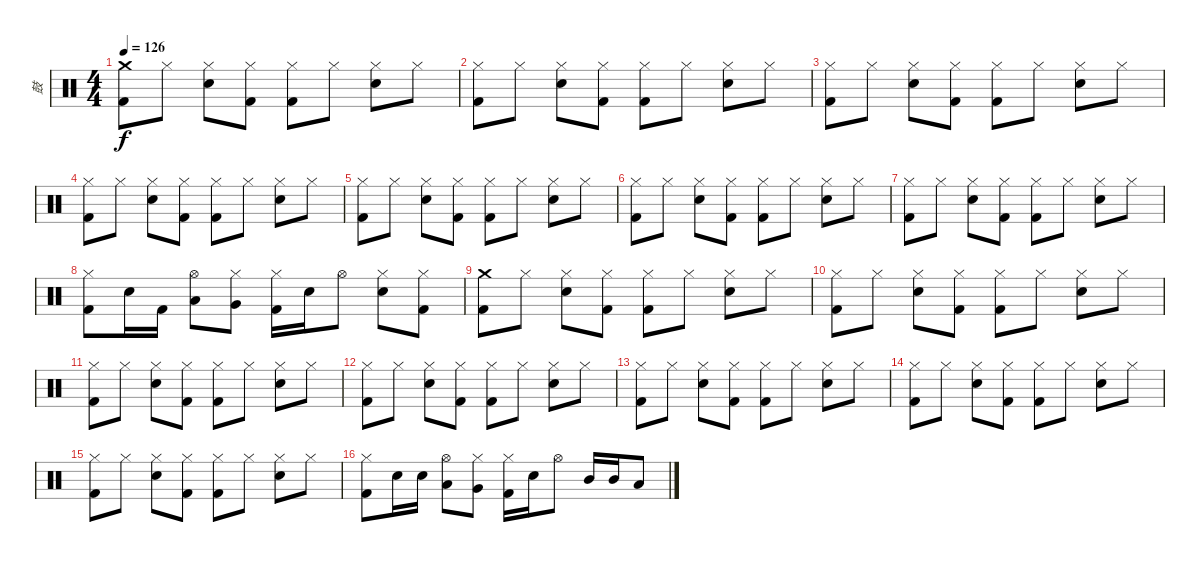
\track ("鼓" "鼓") {instrument percussion}
\staff {score}
\articulation defaults
\ts (4 4)
\tempo 126
\clef neutral
\ks c
("Crash medium (hit)" "Kick (hit) 2").8{dy f} "Hi-Hat (closed)".8 ("Hi-Hat (closed)" "Electric Snare (hit)").8 ("Hi-Hat (closed)" "Kick (hit) 2").8 ("Hi-Hat (closed)" "Kick (hit) 2").8 "Hi-Hat (closed)".8 ("Hi-Hat (closed)" "Electric Snare (hit)").8 "Hi-Hat (closed)".8 |
("Hi-Hat (closed)" "Kick (hit) 2").8 "Hi-Hat (closed)".8 ("Hi-Hat (closed)" "Electric Snare (hit)").8 ("Hi-Hat (closed)" "Kick (hit) 2").8 ("Hi-Hat (closed)" "Kick (hit) 2").8 "Hi-Hat (closed)".8 ("Hi-Hat (closed)" "Electric Snare (hit)").8 "Hi-Hat (closed)".8 |
("Hi-Hat (closed)" "Kick (hit) 2").8 "Hi-Hat (closed)".8 ("Hi-Hat (closed)" "Electric Snare (hit)").8 ("Hi-Hat (closed)" "Kick (hit) 2").8 ("Hi-Hat (closed)" "Kick (hit) 2").8 "Hi-Hat (closed)".8 ("Hi-Hat (closed)" "Electric Snare (hit)").8 "Hi-Hat (closed)".8 |
("Hi-Hat (closed)" "Kick (hit) 2").8 "Hi-Hat (closed)".8 ("Hi-Hat (closed)" "Electric Snare (hit)").8 ("Hi-Hat (closed)" "Kick (hit) 2").8 ("Hi-Hat (closed)" "Kick (hit) 2").8 "Hi-Hat (closed)".8 ("Hi-Hat (closed)" "Electric Snare (hit)").8 "Hi-Hat (closed)".8 |
("Hi-Hat (closed)" "Kick (hit) 2").8 "Hi-Hat (closed)".8 ("Hi-Hat (closed)" "Electric Snare (hit)").8 ("Hi-Hat (closed)" "Kick (hit) 2").8 ("Hi-Hat (closed)" "Kick (hit) 2").8 "Hi-Hat (closed)".8 ("Hi-Hat (closed)" "Electric Snare (hit)").8 "Hi-Hat (closed)".8 |
("Hi-Hat (closed)" "Kick (hit) 2").8 "Hi-Hat (closed)".8 ("Hi-Hat (closed)" "Electric Snare (hit)").8 ("Hi-Hat (closed)" "Kick (hit) 2").8 ("Hi-Hat (closed)" "Kick (hit) 2").8 "Hi-Hat (closed)".8 ("Hi-Hat (closed)" "Electric Snare (hit)").8 "Hi-Hat (closed)".8 |
("Hi-Hat (closed)" "Kick (hit) 2").8 "Hi-Hat (closed)".8 ("Hi-Hat (closed)" "Electric Snare (hit)").8 ("Hi-Hat (closed)" "Kick (hit) 2").8 ("Hi-Hat (closed)" "Kick (hit) 2").8 "Hi-Hat (closed)".8 ("Hi-Hat (closed)" "Electric Snare (hit)").8 "Hi-Hat (closed)".8 |
("Hi-Hat (closed)" "Kick (hit) 2").8 "Electric Snare (hit)".16 "Kick (hit) 2".16 ("Hi-Hat (open)" "Low Tom (hit)").8 ("Hi-Hat (closed)" "Very Low Tom (hit)").8 ("Hi-Hat (closed)" "Kick (hit) 2").16 "Electric Snare (hit)".16 "Hi-Hat (open)".8 ("Hi-Hat (closed)" "Electric Snare (hit)").8 ("Hi-Hat (closed)" "Kick (hit) 2").8 |
("Crash medium (hit)" "Kick (hit) 2").8{volume 13} "Hi-Hat (closed)".8 ("Hi-Hat (closed)" "Electric Snare (hit)").8 ("Hi-Hat (closed)" "Kick (hit) 2").8 ("Hi-Hat (closed)" "Kick (hit) 2").8 "Hi-Hat (closed)".8 ("Hi-Hat (closed)" "Electric Snare (hit)").8 "Hi-Hat (closed)".8 |
("Hi-Hat (closed)" "Kick (hit) 2").8 "Hi-Hat (closed)".8 ("Hi-Hat (closed)" "Electric Snare (hit)").8 ("Hi-Hat (closed)" "Kick (hit) 2").8 ("Hi-Hat (closed)" "Kick (hit) 2").8 "Hi-Hat (closed)".8 ("Hi-Hat (closed)" "Electric Snare (hit)").8 "Hi-Hat (closed)".8 |
("Hi-Hat (closed)" "Kick (hit) 2").8{volume 12} "Hi-Hat (closed)".8 ("Hi-Hat (closed)" "Electric Snare (hit)").8 ("Hi-Hat (closed)" "Kick (hit) 2").8 ("Hi-Hat (closed)" "Kick (hit) 2").8 "Hi-Hat (closed)".8 ("Hi-Hat (closed)" "Electric Snare (hit)").8 "Hi-Hat (closed)".8 |
("Hi-Hat (closed)" "Kick (hit) 2").8{volume 10} "Hi-Hat (closed)".8 ("Hi-Hat (closed)" "Electric Snare (hit)").8 ("Hi-Hat (closed)" "Kick (hit) 2").8 ("Hi-Hat (closed)" "Kick (hit) 2").8 "Hi-Hat (closed)".8 ("Hi-Hat (closed)" "Electric Snare (hit)").8 "Hi-Hat (closed)".8 |
("Hi-Hat (closed)" "Kick (hit) 2").8{volume 9} "Hi-Hat (closed)".8 ("Hi-Hat (closed)" "Electric Snare (hit)").8 ("Hi-Hat (closed)" "Kick (hit) 2").8 ("Hi-Hat (closed)" "Kick (hit) 2").8 "Hi-Hat (closed)".8 ("Hi-Hat (closed)" "Electric Snare (hit)").8 "Hi-Hat (closed)".8 |
("Hi-Hat (closed)" "Kick (hit) 2").8{volume 7} "Hi-Hat (closed)".8 ("Hi-Hat (closed)" "Electric Snare (hit)").8 ("Hi-Hat (closed)" "Kick (hit) 2").8 ("Hi-Hat (closed)" "Kick (hit) 2").8 "Hi-Hat (closed)".8 ("Hi-Hat (closed)" "Electric Snare (hit)").8 "Hi-Hat (closed)".8 |
("Hi-Hat (closed)" "Kick (hit) 2").8{volume 5} "Hi-Hat (closed)".8 ("Hi-Hat (closed)" "Electric Snare (hit)").8 ("Hi-Hat (closed)" "Kick (hit) 2").8 ("Hi-Hat (closed)" "Kick (hit) 2").8 "Hi-Hat (closed)".8 ("Hi-Hat (closed)" "Electric Snare (hit)").8 "Hi-Hat (closed)".8 |
("Hi-Hat (closed)" "Kick (hit) 2").8{volume 3} "Electric Snare (hit)".16 "Electric Snare (hit)".16 ("Hi-Hat (open)" "Low Tom (hit)").8{volume 2} ("Hi-Hat (closed)" "Very Low Tom (hit)").8 ("Hi-Hat (closed)" "Kick (hit) 2").16{volume 1} "Electric Snare (hit)".16 "Hi-Hat (open)".8 "Mid Tom (hit)".16{volume 0} "Mid Tom (hit)".16 "Low Tom (hit)".8
